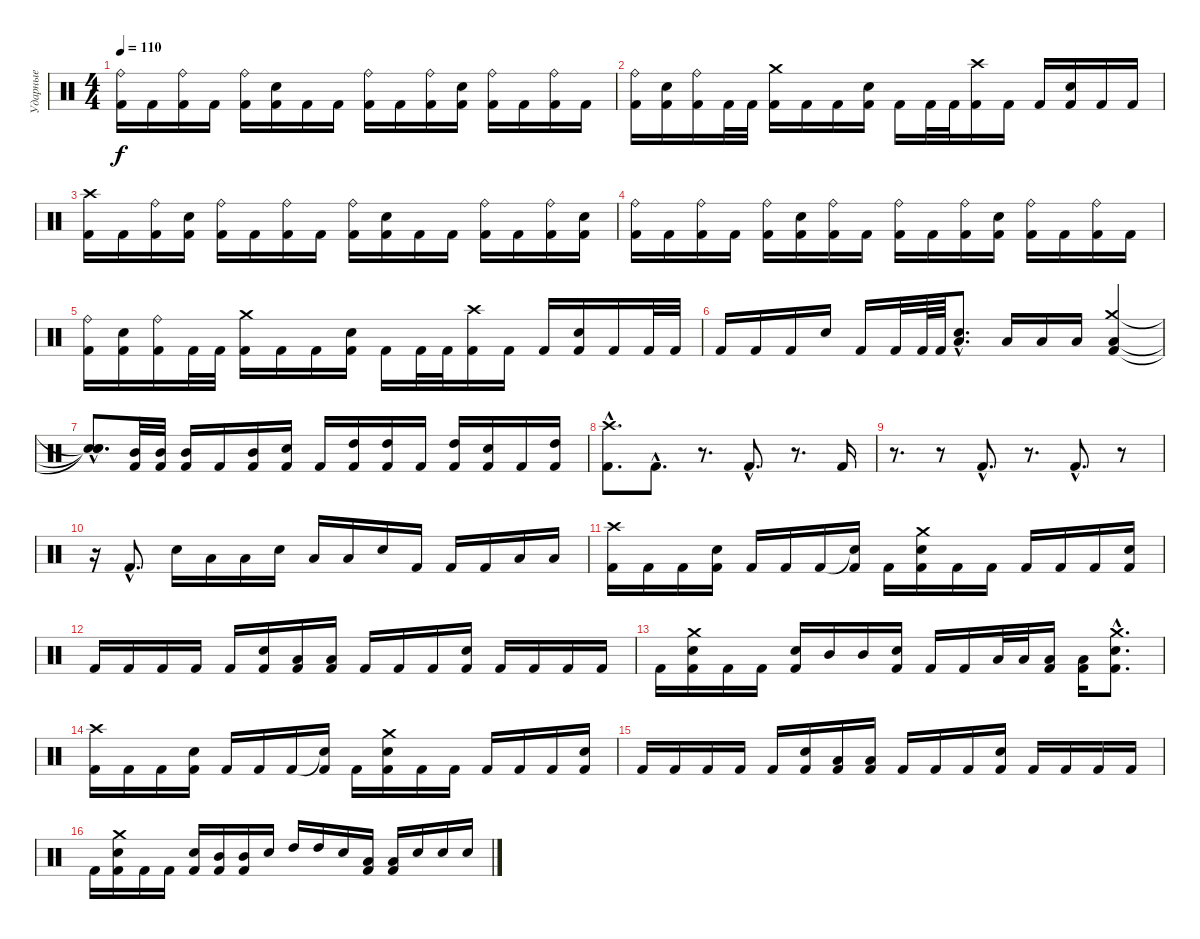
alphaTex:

\track ("Ударные" "Ударные") {instrument percussion}
\staff {score}
\articulation defaults
\ts (4 4)
\tempo 110
\clef neutral
\ks c
("Ride (bell)" "Kick (hit) 2").16{dy f} "Kick (hit) 2".16 ("Ride (bell)" "Kick (hit) 2").16 "Kick (hit) 2".16 ("Ride (bell)" "Kick (hit) 2").16 ("Electric Snare (hit)" "Kick (hit) 2").16 "Kick (hit) 2".16 "Kick (hit) 2".16 ("Ride (bell)" "Kick (hit) 2").16 "Kick (hit) 2".16 ("Ride (bell)" "Kick (hit) 2").16 ("Electric Snare (hit)" "Kick (hit) 2").16 ("Ride (bell)" "Kick (hit) 2").16 "Kick (hit) 2".16 ("Ride (bell)" "Kick (hit) 2").16 "Kick (hit) 2".16 |
("Ride (bell)" "Kick (hit) 2").16 ("Electric Snare (hit)" "Kick (hit) 2").16 ("Ride (bell)" "Kick (hit) 2").16 "Kick (hit) 2".32 "Kick (hit) 2".32 ("Crash medium (hit)" "Kick (hit) 2").16 "Kick (hit) 2".16 "Kick (hit) 2".16 ("Electric Snare (hit)" "Kick (hit) 2").16 "Kick (hit) 2".16 "Kick (hit) 2".32 "Kick (hit) 2".32 ("Crash high (hit)" "Kick (hit) 2").16 "Kick (hit) 2".16 "Kick (hit) 2".16 ("Electric Snare (hit)" "Kick (hit) 2").16 "Kick (hit) 2".16 "Kick (hit) 2".16 |
("Crash high (hit)" "Kick (hit) 2").16 "Kick (hit) 2".16 ("Ride (bell)" "Kick (hit) 2").16 ("Electric Snare (hit)" "Kick (hit) 2").16 ("Ride (bell)" "Kick (hit) 2").16 "Kick (hit) 2".16 ("Ride (bell)" "Kick (hit) 2").16 "Kick (hit) 2".16 ("Ride (bell)" "Kick (hit) 2").16 ("Electric Snare (hit)" "Kick (hit) 2").16 "Kick (hit) 2".16 "Kick (hit) 2".16 ("Ride (bell)" "Kick (hit) 2").16 "Kick (hit) 2".16 ("Ride (bell)" "Kick (hit) 2").16 ("Electric Snare (hit)" "Kick (hit) 2").16 |
("Ride (bell)" "Kick (hit) 2").16 "Kick (hit) 2".16 ("Ride (bell)" "Kick (hit) 2").16 "Kick (hit) 2".16 ("Ride (bell)" "Kick (hit) 2").16 ("Electric Snare (hit)" "Kick (hit) 2").16 ("Ride (bell)" "Kick (hit) 2").16 "Kick (hit) 2".16 ("Ride (bell)" "Kick (hit) 2").16 "Kick (hit) 2".16 ("Ride (bell)" "Kick (hit) 2").16 ("Electric Snare (hit)" "Kick (hit) 2").16 ("Ride (bell)" "Kick (hit) 2").16 "Kick (hit) 2".16 ("Ride (bell)" "Kick (hit) 2").16 "Kick (hit) 2".16 |
("Ride (bell)" "Kick (hit) 2").16 ("Electric Snare (hit)" "Kick (hit) 2").16 ("Ride (bell)" "Kick (hit) 2").16 "Kick (hit) 2".32 "Kick (hit) 2".32 ("Crash medium (hit)" "Kick (hit) 2").16 "Kick (hit) 2".16 "Kick (hit) 2".16 ("Electric Snare (hit)" "Kick (hit) 2").16 "Kick (hit) 2".16 "Kick (hit) 2".32 "Kick (hit) 2".32 ("Crash high (hit)" "Kick (hit) 2").16 "Kick (hit) 2".16 "Kick (hit) 2".16 ("Electric Snare (hit)" "Kick (hit) 2").16 "Kick (hit) 2".16 "Kick (hit) 2".32 "Kick (hit) 2".32 |
"Kick (hit) 2".16 "Kick (hit) 2".16 "Kick (hit) 2".16 "Electric Snare (hit)".16 "Kick (hit) 2".16 "Kick (hit) 2".32 "Kick (hit) 2".64 "Kick (hit) 2".64 ("Electric Snare (hit)"{hac} "Low Tom (hit)"{hac}).8{d} "Low Tom (hit)".16 "Low Tom (hit)".16 "Low Tom (hit)".16 ("Crash medium (hit)" "Low Tom (hit)" "Kick (hit) 2").4 |
("Snare (hit)"{hac t} "Snare (hit)"{hac t} "Snare (hit)"{hac t}).8{d} ("Mid Tom (hit)" "Kick (hit) 2").32 ("Mid Tom (hit)" "Kick (hit) 2").32 ("Mid Tom (hit)" "Kick (hit) 2").16 "Kick (hit) 2".16 ("Mid Tom (hit)" "Kick (hit) 2").16 ("Electric Snare (hit)" "Kick (hit) 2").16 "Kick (hit) 2".16 ("High Tom (hit)" "Kick (hit) 2").16 ("High Tom (hit)" "Kick (hit) 2").16 "Kick (hit) 2".16 ("High Tom (hit)" "Kick (hit) 2").16 ("Electric Snare (hit)" "Kick (hit) 2").16 "Kick (hit) 2".16 ("High Tom (hit)" "Kick (hit) 2").16 |
("Crash high (hit)"{hac} "Kick (hit) 2"{hac}).8{d} "Kick (hit) 2"{hac}.8{d} r.8{d} "Kick (hit) 2"{hac}.8{d} r.8{d} "Kick (hit) 2".16 |
r.8{d} r.8 "Kick (hit) 2"{hac}.8{d} r.8{d} "Kick (hit) 2"{hac}.8{d} r.8 |
r.16 "Kick (hit) 2"{hac}.8{d} "Electric Snare (hit)".16 "Low Tom (hit)".16 "Low Tom (hit)".16 "Electric Snare (hit)".16 "Low Tom (hit)".16 "Low Tom (hit)".16 "Electric Snare (hit)".16 "Kick (hit) 2".16 "Kick (hit) 2".16 "Kick (hit) 2".16 "Low Tom (hit)".16 "Low Tom (hit)".16 |
("Crash high (hit)" "Kick (hit) 2").16 "Kick (hit) 2".16 "Kick (hit) 2".16 ("Electric Snare (hit)" "Kick (hit) 2").16 "Kick (hit) 2".16 "Kick (hit) 2".16 "Kick (hit) 2".16 ("Snare (hit)"{t} "Kick (hit) 2").16 "Kick (hit) 2".16 ("Crash medium (hit)" "Electric Snare (hit)" "Kick (hit) 2").16 "Kick (hit) 2".16 "Kick (hit) 2".16 "Kick (hit) 2".16 "Kick (hit) 2".16 "Kick (hit) 2".16 ("Electric Snare (hit)" "Kick (hit) 2").16 |
"Kick (hit) 2".16 "Kick (hit) 2".16 "Kick (hit) 2".16 "Kick (hit) 2".16 "Kick (hit) 2".16 ("Electric Snare (hit)" "Kick (hit) 2").16 ("Low Tom (hit)" "Kick (hit) 2").16 ("Low Tom (hit)" "Kick (hit) 2").16 "Kick (hit) 2".16 "Kick (hit) 2".16 "Kick (hit) 2".16 ("Electric Snare (hit)" "Kick (hit) 2").16 "Kick (hit) 2".16 "Kick (hit) 2".16 "Kick (hit) 2".16 "Kick (hit) 2".16 |
"Kick (hit) 2".16 ("Crash medium (hit)" "Electric Snare (hit)" "Kick (hit) 2").16 "Kick (hit) 2".16 "Kick (hit) 2".16 ("Electric Snare (hit)" "Kick (hit) 2").16 "Mid Tom (hit)".16 "Mid Tom (hit)".16 ("Electric Snare (hit)" "Kick (hit) 2").16 "Kick (hit) 2".16 "Kick (hit) 2".16 "Low Tom (hit)".32 "Low Tom (hit)".32 ("Low Tom (hit)" "Kick (hit) 2").16 ("Low Tom (hit)" "Kick (hit) 2").16 ("Crash medium (hit)"{hac} "Electric Snare (hit)"{hac} "Kick (hit) 2"{hac}).8{d} |
("Crash high (hit)" "Kick (hit) 2").16 "Kick (hit) 2".16 "Kick (hit) 2".16 ("Electric Snare (hit)" "Kick (hit) 2").16 "Kick (hit) 2".16 "Kick (hit) 2".16 "Kick (hit) 2".16 ("Snare (hit)"{t} "Kick (hit) 2").16 "Kick (hit) 2".16 ("Crash medium (hit)" "Electric Snare (hit)" "Kick (hit) 2").16 "Kick (hit) 2".16 "Kick (hit) 2".16 "Kick (hit) 2".16 "Kick (hit) 2".16 "Kick (hit) 2".16 ("Electric Snare (hit)" "Kick (hit) 2").16 |
"Kick (hit) 2".16 "Kick (hit) 2".16 "Kick (hit) 2".16 "Kick (hit) 2".16 "Kick (hit) 2".16 ("Electric Snare (hit)" "Kick (hit) 2").16 ("Low Tom (hit)" "Kick (hit) 2").16 ("Low Tom (hit)" "Kick (hit) 2").16 "Kick (hit) 2".16 "Kick (hit) 2".16 "Kick (hit) 2".16 ("Electric Snare (hit)" "Kick (hit) 2").16 "Kick (hit) 2".16 "Kick (hit) 2".16 "Kick (hit) 2".16 "Kick (hit) 2".16 |
"Kick (hit) 2".16 ("Crash medium (hit)" "Electric Snare (hit)" "Kick (hit) 2").16 "Kick (hit) 2".16 "Kick (hit) 2".16 ("Electric Snare (hit)" "Kick (hit) 2").16 ("Mid Tom (hit)" "Kick (hit) 2").16 ("Mid Tom (hit)" "Kick (hit) 2").16 "Electric Snare (hit)".16 "High Tom (hit)".16 "High Tom (hit)".16 "Electric Snare (hit)".16 ("Low Tom (hit)" "Kick (hit) 2").16 ("Low Tom (hit)" "Kick (hit) 2").16 "Electric Snare (hit)".16 "Electric Snare (hit)".16 "Electric Snare (hit)".16
